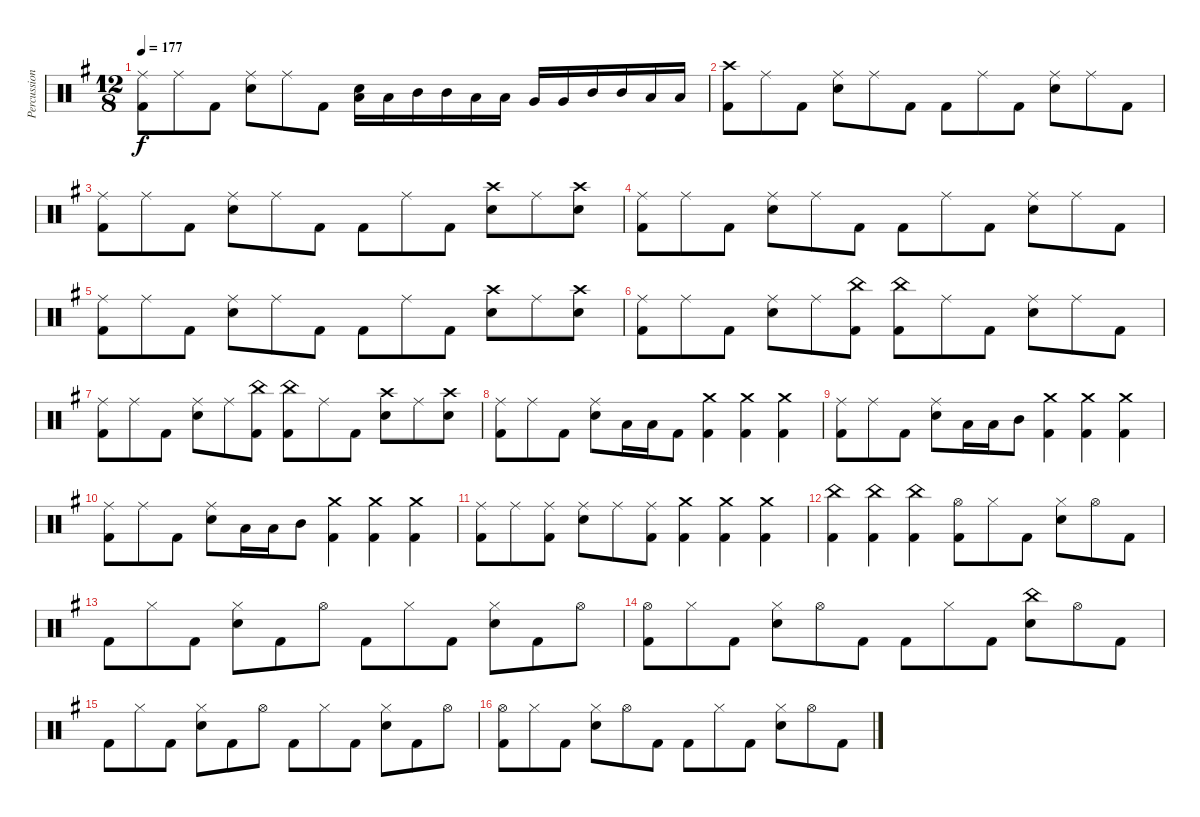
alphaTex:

\track ("Percussion" "Percussion") {instrument percussion}
\staff {score}
\articulation defaults
\ts (12 8)
\tempo 177
\clef neutral
\ks g
("Ride (middle)" "Kick (hit) 2").8{dy f} "Ride (middle)".8 "Kick (hit) 2".8 ("Ride (middle)" "Snare (hit) 2").8 "Ride (middle)".8 "Kick (hit) 2".8 ("Low Tom (hit)" "Snare (hit) 2").16 "Low Tom (hit)".16 "Mid Tom (hit)".16 "Mid Tom (hit)".16 "Low Tom (hit)".16 "Low Tom (hit)".16 "Very Low Tom (hit)".16 "Very Low Tom (hit)".16 "Mid Tom (hit)".16 "Mid Tom (hit)".16 "Low Tom (hit)".16 "Low Tom (hit)".16 |
("Crash high (hit)" "Kick (hit) 2").8 "Ride (middle)".8 "Kick (hit) 2".8 ("Ride (middle)" "Snare (hit) 2").8 "Ride (middle)".8 "Kick (hit) 2".8 "Kick (hit) 2".8 "Ride (middle)".8 "Kick (hit) 2".8 ("Ride (middle)" "Snare (hit) 2").8 "Ride (middle)".8 "Kick (hit) 2".8 |
("Ride (middle)" "Kick (hit) 2").8 "Ride (middle)".8 "Kick (hit) 2".8 ("Ride (middle)" "Snare (hit) 2").8 "Ride (middle)".8 "Kick (hit) 2".8 "Kick (hit) 2".8 "Ride (middle)".8 "Kick (hit) 2".8 ("Crash high (hit)" "Snare (hit) 2").8 "Ride (middle)".8 ("Crash high (hit)" "Snare (hit) 2").8 |
("Ride (middle)" "Kick (hit) 2").8 "Ride (middle)".8 "Kick (hit) 2".8 ("Ride (middle)" "Snare (hit) 2").8 "Ride (middle)".8 "Kick (hit) 2".8 "Kick (hit) 2".8 "Ride (middle)".8 "Kick (hit) 2".8 ("Ride (middle)" "Snare (hit) 2").8 "Ride (middle)".8 "Kick (hit) 2".8 |
("Ride (middle)" "Kick (hit) 2").8 "Ride (middle)".8 "Kick (hit) 2".8 ("Ride (middle)" "Snare (hit) 2").8 "Ride (middle)".8 "Kick (hit) 2".8 "Kick (hit) 2".8 "Ride (middle)".8 "Kick (hit) 2".8 ("Crash high (hit)" "Snare (hit) 2").8 "Ride (middle)".8 ("Crash high (hit)" "Snare (hit) 2").8 |
("Ride (middle)" "Kick (hit) 2").8 "Ride (middle)".8 "Kick (hit) 2".8 ("Ride (middle)" "Snare (hit) 2").8 "Ride (middle)".8 ("China (hit)" "Kick (hit) 2").8 ("China (hit)" "Kick (hit) 2").8 "Ride (middle)".8 "Kick (hit) 2".8 ("Ride (middle)" "Snare (hit) 2").8 "Ride (middle)".8 "Kick (hit) 2".8 |
("Ride (middle)" "Kick (hit) 2").8 "Ride (middle)".8 "Kick (hit) 2".8 ("Ride (middle)" "Snare (hit) 2").8 "Ride (middle)".8 ("China (hit)" "Kick (hit) 2").8 ("China (hit)" "Kick (hit) 2").8 "Ride (middle)".8 "Kick (hit) 2".8 ("Crash high (hit)" "Snare (hit) 2").8 "Ride (middle)".8 ("Crash high (hit)" "Snare (hit) 2").8 |
("Ride (middle)" "Kick (hit) 2").8 "Ride (middle)".8 "Kick (hit) 2".8 ("Ride (middle)" "Snare (hit) 2").8 "Low Tom (hit)".16 "Low Tom (hit)".16 "Kick (hit) 2".8 ("Crash medium (hit)" "Kick (hit) 2").4 ("Crash medium (hit)" "Kick (hit) 2").4 ("Crash medium (hit)" "Kick (hit) 2").4 |
("Ride (middle)" "Kick (hit) 2").8 "Ride (middle)".8 "Kick (hit) 2".8 ("Ride (middle)" "Snare (hit) 2").8 "Low Tom (hit)".16 "Low Tom (hit)".16 "Mid Tom (hit)".8 ("Crash medium (hit)" "Kick (hit) 2").4 ("Crash medium (hit)" "Kick (hit) 2").4 ("Crash medium (hit)" "Kick (hit) 2").4 |
("Ride (middle)" "Kick (hit) 2").8 "Ride (middle)".8 "Kick (hit) 2".8 ("Ride (middle)" "Snare (hit) 2").8 "Low Tom (hit)".16 "Low Tom (hit)".16 "Mid Tom (hit)".8 ("Crash medium (hit)" "Kick (hit) 2").4 ("Crash medium (hit)" "Kick (hit) 2").4 ("Crash medium (hit)" "Kick (hit) 2").4 |
("Ride (middle)" "Kick (hit) 2").8 "Ride (middle)".8 ("Ride (middle)" "Kick (hit) 2").8 ("Ride (middle)" "Snare (hit) 2").8 "Ride (middle)".8 ("Ride (middle)" "Kick (hit) 2").8 ("Crash medium (hit)" "Kick (hit) 2").4 ("Crash medium (hit)" "Kick (hit) 2").4 ("Crash medium (hit)" "Kick (hit) 2").4 |
("China (hit)" "Kick (hit) 2").4 ("China (hit)" "Kick (hit) 2").4 ("China (hit)" "Kick (hit) 2").4 ("Hi-Hat (open)" "Kick (hit) 2").8 "Hi-Hat (closed)".8 "Kick (hit) 2".8 ("Hi-Hat (closed)" "Snare (hit) 2").8 "Hi-Hat (open)".8 "Kick (hit) 2".8 |
"Kick (hit) 2".8 "Hi-Hat (closed)".8 "Kick (hit) 2".8 ("Hi-Hat (closed)" "Snare (hit) 2").8 "Kick (hit) 2".8 "Hi-Hat (open)".8 "Kick (hit) 2".8 "Hi-Hat (closed)".8 "Kick (hit) 2".8 ("Hi-Hat (closed)" "Snare (hit) 2").8 "Kick (hit) 2".8 "Hi-Hat (open)".8 |
("Hi-Hat (open)" "Kick (hit) 2").8 "Hi-Hat (closed)".8 "Kick (hit) 2".8 ("Hi-Hat (closed)" "Snare (hit) 2").8 "Hi-Hat (open)".8 "Kick (hit) 2".8 "Kick (hit) 2".8 "Hi-Hat (closed)".8 "Kick (hit) 2".8 ("China (hit)" "Snare (hit) 2").8 "Hi-Hat (open)".8 "Kick (hit) 2".8 |
"Kick (hit) 2".8 "Hi-Hat (closed)".8 "Kick (hit) 2".8 ("Hi-Hat (closed)" "Snare (hit) 2").8 "Kick (hit) 2".8 "Hi-Hat (open)".8 "Kick (hit) 2".8 "Hi-Hat (closed)".8 "Kick (hit) 2".8 ("Hi-Hat (closed)" "Snare (hit) 2").8 "Kick (hit) 2".8 "Hi-Hat (open)".8 |
("Hi-Hat (open)" "Kick (hit) 2").8 "Hi-Hat (closed)".8 "Kick (hit) 2".8 ("Hi-Hat (closed)" "Snare (hit) 2").8 "Hi-Hat (open)".8 "Kick (hit) 2".8 "Kick (hit) 2".8 "Hi-Hat (closed)".8 "Kick (hit) 2".8 ("Hi-Hat (closed)" "Snare (hit) 2").8 "Hi-Hat (open)".8 "Kick (hit) 2".8
